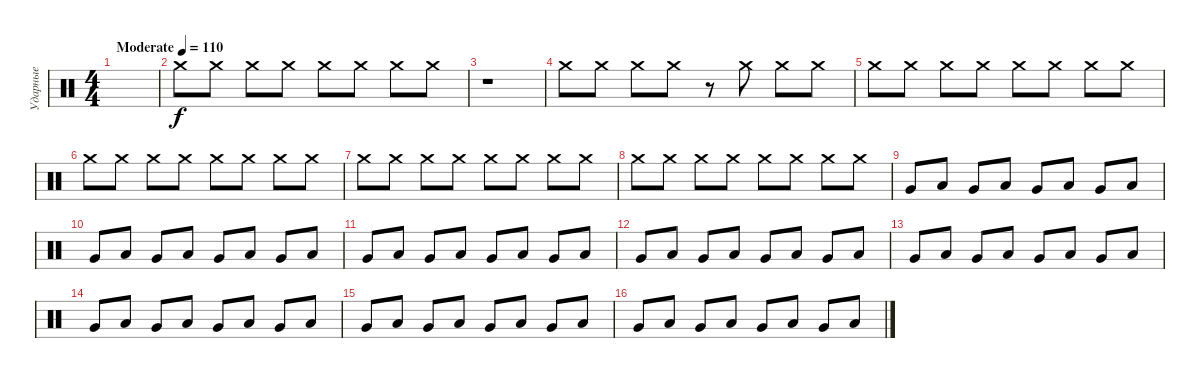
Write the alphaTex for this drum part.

\track ("Ударные" "Ударные") {instrument percussion}
\staff {score}
\articulation defaults
\ts (4 4)
\tempo (110 "Moderate")
\clef neutral
\ks c
|
"Crash medium (hit)".8 "Crash medium (hit)".8 "Crash medium (hit)".8 "Crash medium (hit)".8 "Crash medium (hit)".8 "Crash medium (hit)".8 "Crash medium (hit)".8 "Crash medium (hit)".8 |
r.1 |
"Crash medium (hit)".8 "Crash medium (hit)".8 "Crash medium (hit)".8 "Crash medium (hit)".8 r.8 "Crash medium (hit)".8 "Crash medium (hit)".8 "Crash medium (hit)".8 |
"Crash medium (hit)".8 "Crash medium (hit)".8 "Crash medium (hit)".8 "Crash medium (hit)".8 "Crash medium (hit)".8 "Crash medium (hit)".8 "Crash medium (hit)".8 "Crash medium (hit)".8 |
"Crash medium (hit)".8 "Crash medium (hit)".8 "Crash medium (hit)".8 "Crash medium (hit)".8 "Crash medium (hit)".8 "Crash medium (hit)".8 "Crash medium (hit)".8 "Crash medium (hit)".8 |
"Crash medium (hit)".8 "Crash medium (hit)".8 "Crash medium (hit)".8 "Crash medium (hit)".8 "Crash medium (hit)".8 "Crash medium (hit)".8 "Crash medium (hit)".8 "Crash medium (hit)".8 |
"Crash medium (hit)".8 "Crash medium (hit)".8 "Crash medium (hit)".8 "Crash medium (hit)".8 "Crash medium (hit)".8 "Crash medium (hit)".8 "Crash medium (hit)".8 "Crash medium (hit)".8 |
"Very Low Tom (hit)".8 "Low Floor Tom (hit)".8 "Very Low Tom (hit)".8 "Low Floor Tom (hit)".8 "Very Low Tom (hit)".8 "Low Floor Tom (hit)".8 "Very Low Tom (hit)".8 "Low Floor Tom (hit)".8 |
"Very Low Tom (hit)".8 "Low Floor Tom (hit)".8 "Very Low Tom (hit)".8 "Low Floor Tom (hit)".8 "Very Low Tom (hit)".8 "Low Floor Tom (hit)".8 "Very Low Tom (hit)".8 "Low Floor Tom (hit)".8 |
"Very Low Tom (hit)".8 "Low Floor Tom (hit)".8 "Very Low Tom (hit)".8 "Low Floor Tom (hit)".8 "Very Low Tom (hit)".8 "Low Floor Tom (hit)".8 "Very Low Tom (hit)".8 "Low Floor Tom (hit)".8 |
"Very Low Tom (hit)".8 "Low Floor Tom (hit)".8 "Very Low Tom (hit)".8 "Low Floor Tom (hit)".8 "Very Low Tom (hit)".8 "Low Floor Tom (hit)".8 "Very Low Tom (hit)".8 "Low Floor Tom (hit)".8 |
"Very Low Tom (hit)".8 "Low Floor Tom (hit)".8 "Very Low Tom (hit)".8 "Low Floor Tom (hit)".8 "Very Low Tom (hit)".8 "Low Floor Tom (hit)".8 "Very Low Tom (hit)".8 "Low Floor Tom (hit)".8 |
"Very Low Tom (hit)".8 "Low Floor Tom (hit)".8 "Very Low Tom (hit)".8 "Low Floor Tom (hit)".8 "Very Low Tom (hit)".8 "Low Floor Tom (hit)".8 "Very Low Tom (hit)".8 "Low Floor Tom (hit)".8 |
"Very Low Tom (hit)".8 "Low Floor Tom (hit)".8 "Very Low Tom (hit)".8 "Low Floor Tom (hit)".8 "Very Low Tom (hit)".8 "Low Floor Tom (hit)".8 "Very Low Tom (hit)".8 "Low Floor Tom (hit)".8 |
"Very Low Tom (hit)".8 "Low Floor Tom (hit)".8 "Very Low Tom (hit)".8 "Low Floor Tom (hit)".8 "Very Low Tom (hit)".8 "Low Floor Tom (hit)".8 "Very Low Tom (hit)".8 "Low Floor Tom (hit)".8
